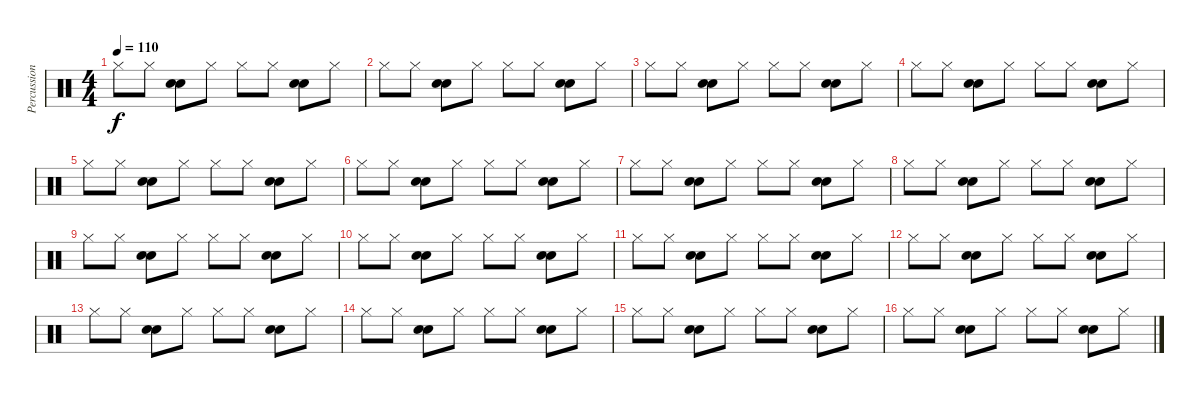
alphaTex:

\track ("Percussions" "Percussion") {instrument percussion}
\staff {score}
\articulation defaults
\ts (4 4)
\tempo 110
\clef neutral
\ks c "Hi-Hat (closed)".8{dy f} "Hi-Hat (closed)".8
("Snare (hit) 2" "Electric Snare (hit)").8 "Hi-Hat (closed)".8 "Hi-Hat (closed)".8 "Hi-Hat (closed)".8 ("Snare (hit) 2" "Electric Snare (hit)").8 "Hi-Hat (closed)".8 |
"Hi-Hat (closed)".8 "Hi-Hat (closed)".8 ("Snare (hit) 2" "Electric Snare (hit)").8 "Hi-Hat (closed)".8 "Hi-Hat (closed)".8 "Hi-Hat (closed)".8 ("Snare (hit) 2" "Electric Snare (hit)").8 "Hi-Hat (closed)".8 |
"Hi-Hat (closed)".8 "Hi-Hat (closed)".8 ("Snare (hit) 2" "Electric Snare (hit)").8 "Hi-Hat (closed)".8 "Hi-Hat (closed)".8 "Hi-Hat (closed)".8 ("Snare (hit) 2" "Electric Snare (hit)").8 "Hi-Hat (closed)".8 |
"Hi-Hat (closed)".8 "Hi-Hat (closed)".8 ("Snare (hit) 2" "Electric Snare (hit)").8 "Hi-Hat (closed)".8 "Hi-Hat (closed)".8 "Hi-Hat (closed)".8 ("Snare (hit) 2" "Electric Snare (hit)").8 "Hi-Hat (closed)".8 |
"Hi-Hat (closed)".8 "Hi-Hat (closed)".8 ("Snare (hit) 2" "Electric Snare (hit)").8 "Hi-Hat (closed)".8 "Hi-Hat (closed)".8 "Hi-Hat (closed)".8 ("Snare (hit) 2" "Electric Snare (hit)").8 "Hi-Hat (closed)".8 |
"Hi-Hat (closed)".8 "Hi-Hat (closed)".8 ("Snare (hit) 2" "Electric Snare (hit)").8 "Hi-Hat (closed)".8 "Hi-Hat (closed)".8 "Hi-Hat (closed)".8 ("Snare (hit) 2" "Electric Snare (hit)").8 "Hi-Hat (closed)".8 |
"Hi-Hat (closed)".8 "Hi-Hat (closed)".8 ("Snare (hit) 2" "Electric Snare (hit)").8 "Hi-Hat (closed)".8 "Hi-Hat (closed)".8 "Hi-Hat (closed)".8 ("Snare (hit) 2" "Electric Snare (hit)").8 "Hi-Hat (closed)".8 |
"Hi-Hat (closed)".8 "Hi-Hat (closed)".8 ("Snare (hit) 2" "Electric Snare (hit)").8 "Hi-Hat (closed)".8 "Hi-Hat (closed)".8 "Hi-Hat (closed)".8 ("Snare (hit) 2" "Electric Snare (hit)").8 "Hi-Hat (closed)".8 |
"Hi-Hat (closed)".8 "Hi-Hat (closed)".8 ("Snare (hit) 2" "Electric Snare (hit)").8 "Hi-Hat (closed)".8 "Hi-Hat (closed)".8 "Hi-Hat (closed)".8 ("Snare (hit) 2" "Electric Snare (hit)").8 "Hi-Hat (closed)".8 |
"Hi-Hat (closed)".8 "Hi-Hat (closed)".8 ("Snare (hit) 2" "Electric Snare (hit)").8 "Hi-Hat (closed)".8 "Hi-Hat (closed)".8 "Hi-Hat (closed)".8 ("Snare (hit) 2" "Electric Snare (hit)").8 "Hi-Hat (closed)".8 |
"Hi-Hat (closed)".8 "Hi-Hat (closed)".8 ("Snare (hit) 2" "Electric Snare (hit)").8 "Hi-Hat (closed)".8 "Hi-Hat (closed)".8 "Hi-Hat (closed)".8 ("Snare (hit) 2" "Electric Snare (hit)").8 "Hi-Hat (closed)".8 |
"Hi-Hat (closed)".8 "Hi-Hat (closed)".8 ("Snare (hit) 2" "Electric Snare (hit)").8 "Hi-Hat (closed)".8 "Hi-Hat (closed)".8 "Hi-Hat (closed)".8 ("Snare (hit) 2" "Electric Snare (hit)").8 "Hi-Hat (closed)".8 |
"Hi-Hat (closed)".8 "Hi-Hat (closed)".8 ("Snare (hit) 2" "Electric Snare (hit)").8 "Hi-Hat (closed)".8 "Hi-Hat (closed)".8 "Hi-Hat (closed)".8 ("Snare (hit) 2" "Electric Snare (hit)").8 "Hi-Hat (closed)".8 |
"Hi-Hat (closed)".8 "Hi-Hat (closed)".8 ("Snare (hit) 2" "Electric Snare (hit)").8 "Hi-Hat (closed)".8 "Hi-Hat (closed)".8 "Hi-Hat (closed)".8 ("Snare (hit) 2" "Electric Snare (hit)").8 "Hi-Hat (closed)".8 |
"Hi-Hat (closed)".8 "Hi-Hat (closed)".8 ("Snare (hit) 2" "Electric Snare (hit)").8 "Hi-Hat (closed)".8 "Hi-Hat (closed)".8 "Hi-Hat (closed)".8 ("Snare (hit) 2" "Electric Snare (hit)").8 "Hi-Hat (closed)".8 |
"Hi-Hat (closed)".8 "Hi-Hat (closed)".8 ("Snare (hit) 2" "Electric Snare (hit)").8 "Hi-Hat (closed)".8 "Hi-Hat (closed)".8 "Hi-Hat (closed)".8 ("Snare (hit) 2" "Electric Snare (hit)").8 "Hi-Hat (closed)".8
